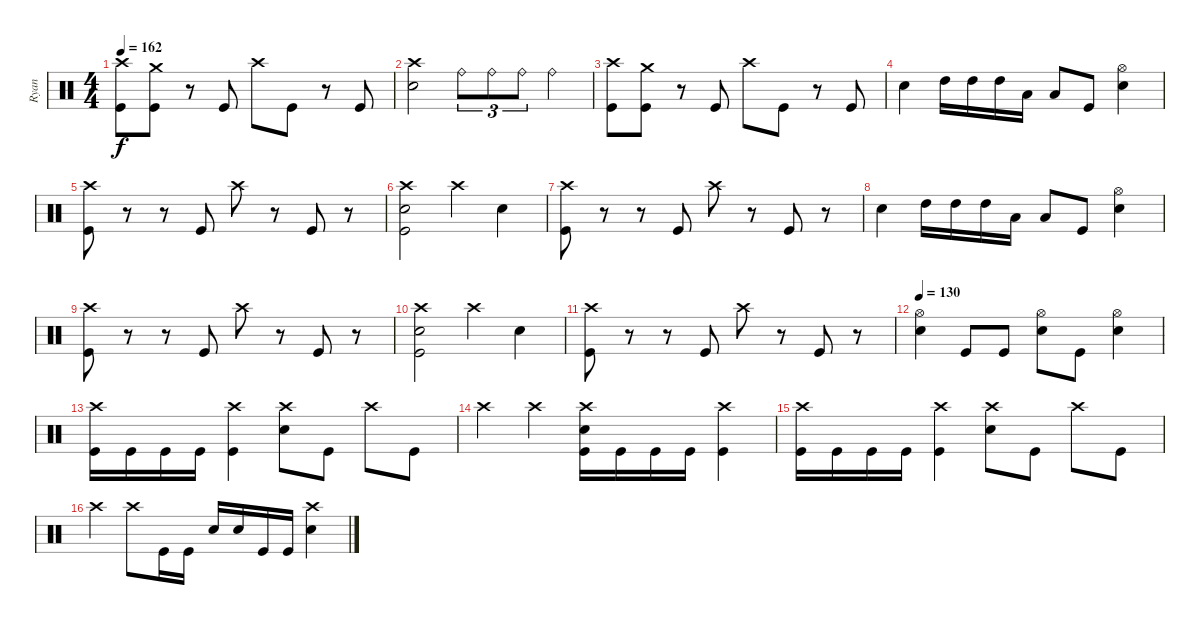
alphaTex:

\track ("Ryan" "Ryan") {instrument percussion}
\staff {score}
\articulation defaults
\ts (4 4)
\tempo 162
\clef neutral
\ks c
("Crash high (hit)" "Kick (hit)").8{dy f} ("Crash medium (hit)" "Kick (hit)").8 r.8 "Kick (hit)".8 "Crash high (hit)".8 "Kick (hit)".8 r.8 "Kick (hit)".8 |
("Crash high (hit)" "Electric Snare (hit)").2 "Ride (bell)".8{tu (3 2)} "Ride (bell)".8{tu (3 2)} "Ride (bell)".8{tu (3 2)} "Ride (bell)".4 |
("Crash high (hit)" "Kick (hit)").8 ("Crash medium (hit)" "Kick (hit)").8 r.8 "Kick (hit)".8 "Crash high (hit)".8 "Kick (hit)".8 r.8 "Kick (hit)".8 |
"Electric Snare (hit)".4 "High Tom (hit)".16 "High Tom (hit)".16 "High Tom (hit)".16 "Low Floor Tom (hit)".16 "Low Floor Tom (hit)".8 "Kick (hit)".8 ("Hi-Hat (open)" "Electric Snare (hit)").4 |
("Crash high (hit)" "Kick (hit)").8 r.8 r.8 "Kick (hit)".8 "Crash high (hit)".8 r.8 "Kick (hit)".8 r.8 |
("Crash high (hit)" "Electric Snare (hit)" "Kick (hit)").2 "Crash high (hit)".4 "Electric Snare (hit)".4 |
("Crash high (hit)" "Kick (hit)").8 r.8 r.8 "Kick (hit)".8 "Crash high (hit)".8 r.8 "Kick (hit)".8 r.8 |
"Electric Snare (hit)".4 "High Tom (hit)".16 "High Tom (hit)".16 "High Tom (hit)".16 "Low Floor Tom (hit)".16 "Low Floor Tom (hit)".8 "Kick (hit)".8 ("Hi-Hat (open)" "Electric Snare (hit)").4 |
("Crash high (hit)" "Kick (hit)").8 r.8 r.8 "Kick (hit)".8 "Crash high (hit)".8 r.8 "Kick (hit)".8 r.8 |
("Crash high (hit)" "Electric Snare (hit)" "Kick (hit)").2 "Crash high (hit)".4 "Electric Snare (hit)".4 |
("Crash high (hit)" "Kick (hit)").8 r.8 r.8 "Kick (hit)".8 "Crash high (hit)".8 r.8 "Kick (hit)".8 r.8 |
\tempo 130
("Hi-Hat (open)" "Electric Snare (hit)").4 "Kick (hit)".8 "Kick (hit)".8 ("Hi-Hat (open)" "Electric Snare (hit)").8 "Kick (hit)".8 ("Hi-Hat (open)" "Electric Snare (hit)").4 |
("Crash high (hit)" "Kick (hit)").16 "Kick (hit)".16 "Kick (hit)".16 "Kick (hit)".16 ("Crash high (hit)" "Kick (hit)").4 ("Crash high (hit)" "Electric Snare (hit)").8 "Kick (hit)".8 "Crash high (hit)".8 "Kick (hit)".8 |
"Crash high (hit)".4 "Crash high (hit)".4 ("Crash high (hit)" "Electric Snare (hit)" "Kick (hit)").16 "Kick (hit)".16 "Kick (hit)".16 "Kick (hit)".16 ("Crash high (hit)" "Kick (hit)").4 |
("Crash high (hit)" "Kick (hit)").16 "Kick (hit)".16 "Kick (hit)".16 "Kick (hit)".16 ("Crash high (hit)" "Kick (hit)").4 ("Crash high (hit)" "Electric Snare (hit)").8 "Kick (hit)".8 "Crash high (hit)".8 "Kick (hit)".8 |
"Crash high (hit)".4 "Crash high (hit)".8 "Kick (hit)".16 "Kick (hit)".16 "Electric Snare (hit)".16 "Electric Snare (hit)".16 "Kick (hit)".16 "Kick (hit)".16 ("Crash high (hit)" "Electric Snare (hit)").4
